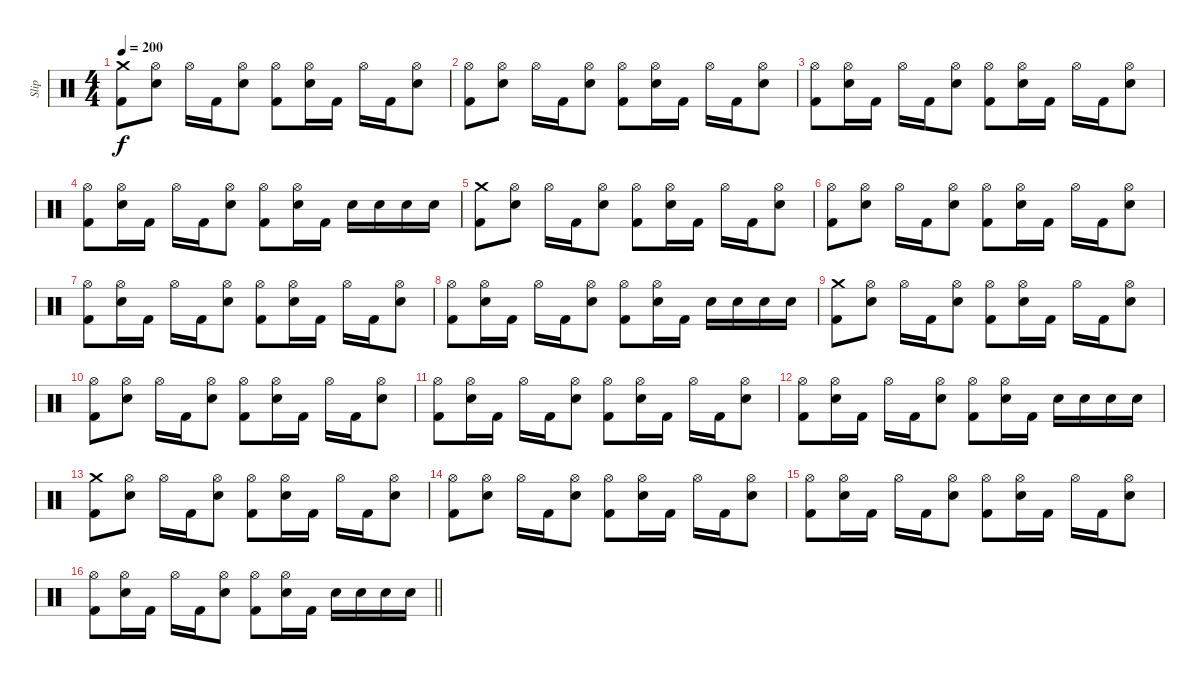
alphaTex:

\track ("Slip" "Slip") {instrument percussion}
\staff {score}
\articulation defaults
\ts (4 4)
\tempo 200
\clef neutral
\ks c
("Kick (hit) 2" "Crash medium (hit)").8{dy f} ("Electric Snare (hit)" "Hi-Hat (open)").8 "Hi-Hat (open)".16 "Kick (hit) 2".16 ("Electric Snare (hit)" "Hi-Hat (open)").8 ("Kick (hit) 2" "Hi-Hat (open)").8 ("Electric Snare (hit)" "Hi-Hat (open)").16 "Kick (hit) 2".16 "Hi-Hat (open)".16 "Kick (hit) 2".16 ("Electric Snare (hit)" "Hi-Hat (open)").8 |
("Kick (hit) 2" "Hi-Hat (open)").8 ("Electric Snare (hit)" "Hi-Hat (open)").8 "Hi-Hat (open)".16 "Kick (hit) 2".16 ("Electric Snare (hit)" "Hi-Hat (open)").8 ("Kick (hit) 2" "Hi-Hat (open)").8 ("Electric Snare (hit)" "Hi-Hat (open)").16 "Kick (hit) 2".16 "Hi-Hat (open)".16 "Kick (hit) 2".16 ("Electric Snare (hit)" "Hi-Hat (open)").8 |
("Kick (hit) 2" "Hi-Hat (open)").8 ("Electric Snare (hit)" "Hi-Hat (open)").16 "Kick (hit) 2".16 "Hi-Hat (open)".16 "Kick (hit) 2".16 ("Electric Snare (hit)" "Hi-Hat (open)").8 ("Kick (hit) 2" "Hi-Hat (open)").8 ("Electric Snare (hit)" "Hi-Hat (open)").16 "Kick (hit) 2".16 "Hi-Hat (open)".16 "Kick (hit) 2".16 ("Electric Snare (hit)" "Hi-Hat (open)").8 |
("Kick (hit) 2" "Hi-Hat (open)").8 ("Electric Snare (hit)" "Hi-Hat (open)").16 "Kick (hit) 2".16 "Hi-Hat (open)".16 "Kick (hit) 2".16 ("Electric Snare (hit)" "Hi-Hat (open)").8 ("Kick (hit) 2" "Hi-Hat (open)").8 ("Electric Snare (hit)" "Hi-Hat (open)").16 "Kick (hit) 2".16 "Electric Snare (hit)".16 "Electric Snare (hit)".16 "Electric Snare (hit)".16 "Electric Snare (hit)".16 |
("Kick (hit) 2" "Crash medium (hit)").8 ("Electric Snare (hit)" "Hi-Hat (open)").8 "Hi-Hat (open)".16 "Kick (hit) 2".16 ("Electric Snare (hit)" "Hi-Hat (open)").8 ("Kick (hit) 2" "Hi-Hat (open)").8 ("Electric Snare (hit)" "Hi-Hat (open)").16 "Kick (hit) 2".16 "Hi-Hat (open)".16 "Kick (hit) 2".16 ("Electric Snare (hit)" "Hi-Hat (open)").8 |
("Kick (hit) 2" "Hi-Hat (open)").8 ("Electric Snare (hit)" "Hi-Hat (open)").8 "Hi-Hat (open)".16 "Kick (hit) 2".16 ("Electric Snare (hit)" "Hi-Hat (open)").8 ("Kick (hit) 2" "Hi-Hat (open)").8 ("Electric Snare (hit)" "Hi-Hat (open)").16 "Kick (hit) 2".16 "Hi-Hat (open)".16 "Kick (hit) 2".16 ("Electric Snare (hit)" "Hi-Hat (open)").8 |
("Kick (hit) 2" "Hi-Hat (open)").8 ("Electric Snare (hit)" "Hi-Hat (open)").16 "Kick (hit) 2".16 "Hi-Hat (open)".16 "Kick (hit) 2".16 ("Electric Snare (hit)" "Hi-Hat (open)").8 ("Kick (hit) 2" "Hi-Hat (open)").8 ("Electric Snare (hit)" "Hi-Hat (open)").16 "Kick (hit) 2".16 "Hi-Hat (open)".16 "Kick (hit) 2".16 ("Electric Snare (hit)" "Hi-Hat (open)").8 |
("Kick (hit) 2" "Hi-Hat (open)").8 ("Electric Snare (hit)" "Hi-Hat (open)").16 "Kick (hit) 2".16 "Hi-Hat (open)".16 "Kick (hit) 2".16 ("Electric Snare (hit)" "Hi-Hat (open)").8 ("Kick (hit) 2" "Hi-Hat (open)").8 ("Electric Snare (hit)" "Hi-Hat (open)").16 "Kick (hit) 2".16 "Electric Snare (hit)".16 "Electric Snare (hit)".16 "Electric Snare (hit)".16 "Electric Snare (hit)".16 |
("Kick (hit) 2" "Crash medium (hit)").8 ("Electric Snare (hit)" "Hi-Hat (open)").8 "Hi-Hat (open)".16 "Kick (hit) 2".16 ("Electric Snare (hit)" "Hi-Hat (open)").8 ("Kick (hit) 2" "Hi-Hat (open)").8 ("Electric Snare (hit)" "Hi-Hat (open)").16 "Kick (hit) 2".16 "Hi-Hat (open)".16 "Kick (hit) 2".16 ("Electric Snare (hit)" "Hi-Hat (open)").8 |
("Kick (hit) 2" "Hi-Hat (open)").8 ("Electric Snare (hit)" "Hi-Hat (open)").8 "Hi-Hat (open)".16 "Kick (hit) 2".16 ("Electric Snare (hit)" "Hi-Hat (open)").8 ("Kick (hit) 2" "Hi-Hat (open)").8 ("Electric Snare (hit)" "Hi-Hat (open)").16 "Kick (hit) 2".16 "Hi-Hat (open)".16 "Kick (hit) 2".16 ("Electric Snare (hit)" "Hi-Hat (open)").8 |
("Kick (hit) 2" "Hi-Hat (open)").8 ("Electric Snare (hit)" "Hi-Hat (open)").16 "Kick (hit) 2".16 "Hi-Hat (open)".16 "Kick (hit) 2".16 ("Electric Snare (hit)" "Hi-Hat (open)").8 ("Kick (hit) 2" "Hi-Hat (open)").8 ("Electric Snare (hit)" "Hi-Hat (open)").16 "Kick (hit) 2".16 "Hi-Hat (open)".16 "Kick (hit) 2".16 ("Electric Snare (hit)" "Hi-Hat (open)").8 |
("Kick (hit) 2" "Hi-Hat (open)").8 ("Electric Snare (hit)" "Hi-Hat (open)").16 "Kick (hit) 2".16 "Hi-Hat (open)".16 "Kick (hit) 2".16 ("Electric Snare (hit)" "Hi-Hat (open)").8 ("Kick (hit) 2" "Hi-Hat (open)").8 ("Electric Snare (hit)" "Hi-Hat (open)").16 "Kick (hit) 2".16 "Electric Snare (hit)".16 "Electric Snare (hit)".16 "Electric Snare (hit)".16 "Electric Snare (hit)".16 |
("Kick (hit) 2" "Crash medium (hit)").8 ("Electric Snare (hit)" "Hi-Hat (open)").8 "Hi-Hat (open)".16 "Kick (hit) 2".16 ("Electric Snare (hit)" "Hi-Hat (open)").8 ("Kick (hit) 2" "Hi-Hat (open)").8 ("Electric Snare (hit)" "Hi-Hat (open)").16 "Kick (hit) 2".16 "Hi-Hat (open)".16 "Kick (hit) 2".16 ("Electric Snare (hit)" "Hi-Hat (open)").8 |
("Kick (hit) 2" "Hi-Hat (open)").8 ("Electric Snare (hit)" "Hi-Hat (open)").8 "Hi-Hat (open)".16 "Kick (hit) 2".16 ("Electric Snare (hit)" "Hi-Hat (open)").8 ("Kick (hit) 2" "Hi-Hat (open)").8 ("Electric Snare (hit)" "Hi-Hat (open)").16 "Kick (hit) 2".16 "Hi-Hat (open)".16 "Kick (hit) 2".16 ("Electric Snare (hit)" "Hi-Hat (open)").8 |
("Kick (hit) 2" "Hi-Hat (open)").8 ("Electric Snare (hit)" "Hi-Hat (open)").16 "Kick (hit) 2".16 "Hi-Hat (open)".16 "Kick (hit) 2".16 ("Electric Snare (hit)" "Hi-Hat (open)").8 ("Kick (hit) 2" "Hi-Hat (open)").8 ("Electric Snare (hit)" "Hi-Hat (open)").16 "Kick (hit) 2".16 "Hi-Hat (open)".16 "Kick (hit) 2".16 ("Electric Snare (hit)" "Hi-Hat (open)").8 |
\barLineRight lightlight
("Kick (hit) 2" "Hi-Hat (open)").8 ("Electric Snare (hit)" "Hi-Hat (open)").16 "Kick (hit) 2".16 "Hi-Hat (open)".16 "Kick (hit) 2".16 ("Electric Snare (hit)" "Hi-Hat (open)").8 ("Kick (hit) 2" "Hi-Hat (open)").8 ("Electric Snare (hit)" "Hi-Hat (open)").16 "Kick (hit) 2".16 "Electric Snare (hit)".16 "Electric Snare (hit)".16 "Electric Snare (hit)".16 "Electric Snare (hit)".16
